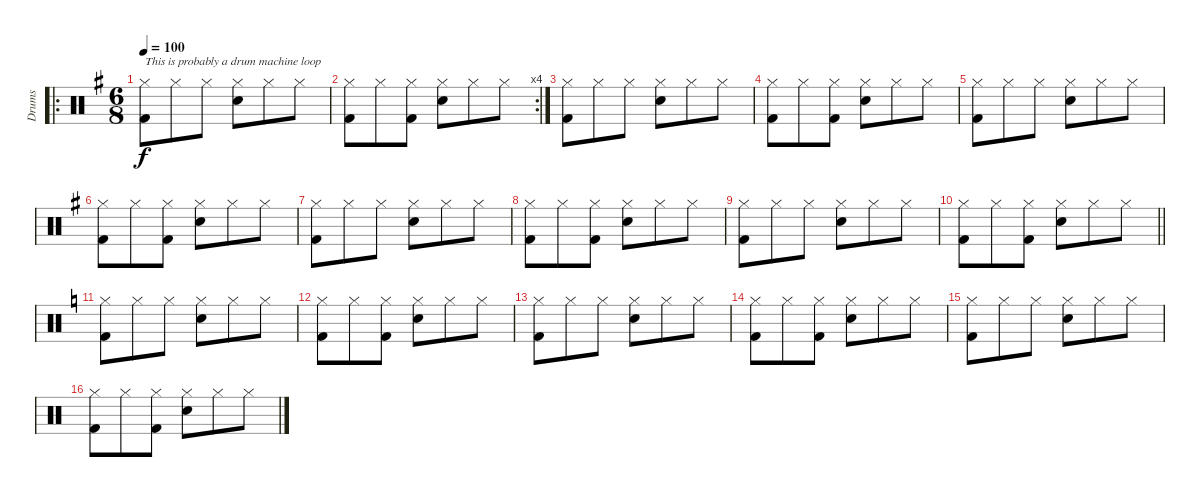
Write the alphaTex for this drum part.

\track ("Drums" "Drums") {instrument percussion}
\staff {score}
\articulation defaults
\ro
\ts (6 8)
\tempo 100
\clef neutral
\ks g
("Hi-Hat (closed)" "Kick (hit) 2").8{txt "This is probably a drum machine loop" dy f} "Hi-Hat (closed)".8 "Hi-Hat (closed)".8 ("Hi-Hat (closed)" "Electric Snare (hit)").8 "Hi-Hat (closed)".8 "Hi-Hat (closed)".8 |
\rc 4
("Hi-Hat (closed)" "Kick (hit) 2").8 "Hi-Hat (closed)".8 ("Hi-Hat (closed)" "Kick (hit) 2").8 ("Hi-Hat (closed)" "Electric Snare (hit)").8 "Hi-Hat (closed)".8 "Hi-Hat (closed)".8 |
("Hi-Hat (closed)" "Kick (hit) 2").8 "Hi-Hat (closed)".8 "Hi-Hat (closed)".8 ("Hi-Hat (closed)" "Electric Snare (hit)").8 "Hi-Hat (closed)".8 "Hi-Hat (closed)".8 |
("Hi-Hat (closed)" "Kick (hit) 2").8 "Hi-Hat (closed)".8 ("Hi-Hat (closed)" "Kick (hit) 2").8 ("Hi-Hat (closed)" "Electric Snare (hit)").8 "Hi-Hat (closed)".8 "Hi-Hat (closed)".8 |
("Hi-Hat (closed)" "Kick (hit) 2").8 "Hi-Hat (closed)".8 "Hi-Hat (closed)".8 ("Hi-Hat (closed)" "Electric Snare (hit)").8 "Hi-Hat (closed)".8 "Hi-Hat (closed)".8 |
("Hi-Hat (closed)" "Kick (hit) 2").8 "Hi-Hat (closed)".8 ("Hi-Hat (closed)" "Kick (hit) 2").8 ("Hi-Hat (closed)" "Electric Snare (hit)").8 "Hi-Hat (closed)".8 "Hi-Hat (closed)".8 |
("Hi-Hat (closed)" "Kick (hit) 2").8 "Hi-Hat (closed)".8 "Hi-Hat (closed)".8 ("Hi-Hat (closed)" "Electric Snare (hit)").8 "Hi-Hat (closed)".8 "Hi-Hat (closed)".8 |
("Hi-Hat (closed)" "Kick (hit) 2").8 "Hi-Hat (closed)".8 ("Hi-Hat (closed)" "Kick (hit) 2").8 ("Hi-Hat (closed)" "Electric Snare (hit)").8 "Hi-Hat (closed)".8 "Hi-Hat (closed)".8 |
("Hi-Hat (closed)" "Kick (hit) 2").8 "Hi-Hat (closed)".8 "Hi-Hat (closed)".8 ("Hi-Hat (closed)" "Electric Snare (hit)").8 "Hi-Hat (closed)".8 "Hi-Hat (closed)".8 |
\barLineRight lightlight
("Hi-Hat (closed)" "Kick (hit) 2").8 "Hi-Hat (closed)".8 ("Hi-Hat (closed)" "Kick (hit) 2").8 ("Hi-Hat (closed)" "Electric Snare (hit)").8 "Hi-Hat (closed)".8 "Hi-Hat (closed)".8 |
\ks c
("Hi-Hat (closed)" "Kick (hit) 2").8 "Hi-Hat (closed)".8 "Hi-Hat (closed)".8 ("Hi-Hat (closed)" "Electric Snare (hit)").8 "Hi-Hat (closed)".8 "Hi-Hat (closed)".8 |
("Hi-Hat (closed)" "Kick (hit) 2").8 "Hi-Hat (closed)".8 ("Hi-Hat (closed)" "Kick (hit) 2").8 ("Hi-Hat (closed)" "Electric Snare (hit)").8 "Hi-Hat (closed)".8 "Hi-Hat (closed)".8 |
("Hi-Hat (closed)" "Kick (hit) 2").8 "Hi-Hat (closed)".8 "Hi-Hat (closed)".8 ("Hi-Hat (closed)" "Electric Snare (hit)").8 "Hi-Hat (closed)".8 "Hi-Hat (closed)".8 |
("Hi-Hat (closed)" "Kick (hit) 2").8 "Hi-Hat (closed)".8 ("Hi-Hat (closed)" "Kick (hit) 2").8 ("Hi-Hat (closed)" "Electric Snare (hit)").8 "Hi-Hat (closed)".8 "Hi-Hat (closed)".8 |
("Hi-Hat (closed)" "Kick (hit) 2").8 "Hi-Hat (closed)".8 "Hi-Hat (closed)".8 ("Hi-Hat (closed)" "Electric Snare (hit)").8 "Hi-Hat (closed)".8 "Hi-Hat (closed)".8 |
("Hi-Hat (closed)" "Kick (hit) 2").8 "Hi-Hat (closed)".8 ("Hi-Hat (closed)" "Kick (hit) 2").8 ("Hi-Hat (closed)" "Electric Snare (hit)").8 "Hi-Hat (closed)".8 "Hi-Hat (closed)".8
